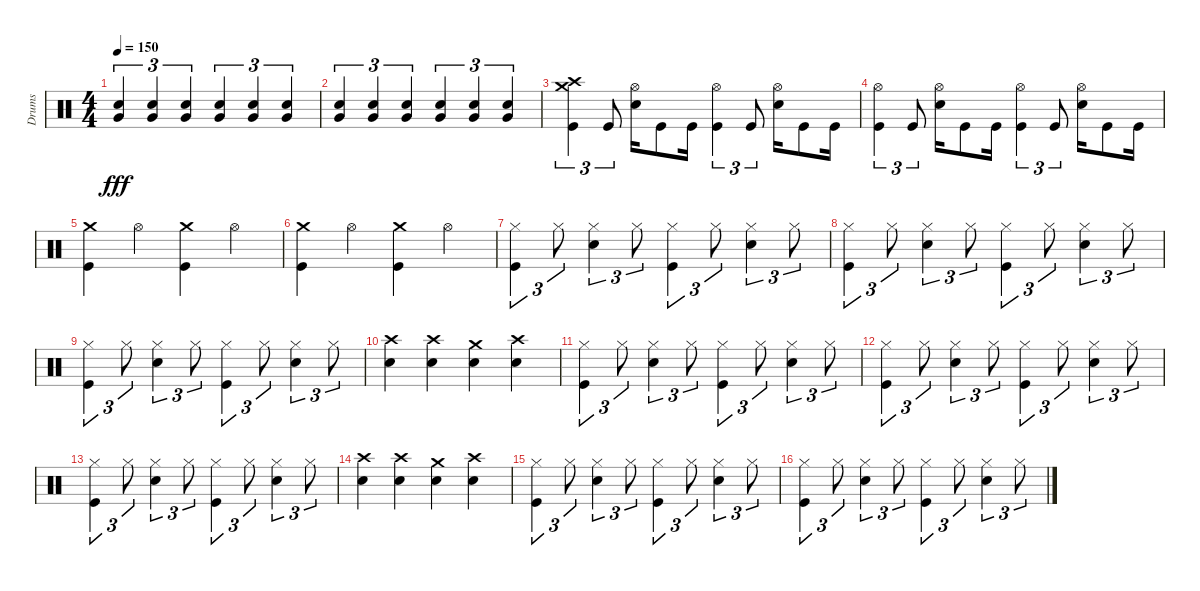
\track ("Drums" "Drums") {instrument percussion}
\staff {score}
\articulation defaults
\ts (4 4)
\tempo 150
\clef neutral
\ks c
("Very Low Tom (hit)" "Snare (hit) 2").4{tu (3 2) dy fff} ("Very Low Tom (hit)" "Snare (hit) 2").4{tu (3 2)} ("Very Low Tom (hit)" "Snare (hit) 2").4{tu (3 2)} ("Very Low Tom (hit)" "Snare (hit) 2").4{tu (3 2)} ("Very Low Tom (hit)" "Snare (hit) 2").4{tu (3 2)} ("Very Low Tom (hit)" "Snare (hit) 2").4{tu (3 2)} |
("Very Low Tom (hit)" "Snare (hit) 2").4{tu (3 2)} ("Very Low Tom (hit)" "Snare (hit) 2").4{tu (3 2)} ("Very Low Tom (hit)" "Snare (hit) 2").4{tu (3 2)} ("Very Low Tom (hit)" "Snare (hit) 2").4{tu (3 2)} ("Very Low Tom (hit)" "Snare (hit) 2").4{tu (3 2)} ("Very Low Tom (hit)" "Snare (hit) 2").4{tu (3 2)} |
("Crash medium (hit)" "Crash high (hit)" "Kick (hit)").4{tu (3 2)} "Kick (hit)".8{tu (3 2)} ("Hi-Hat (open)" "Snare (hit) 2").16 "Kick (hit)".8 "Kick (hit)".16 ("Hi-Hat (open)" "Kick (hit)").4{tu (3 2)} "Kick (hit)".8{tu (3 2)} ("Hi-Hat (open)" "Snare (hit) 2").16 "Kick (hit)".8 "Kick (hit)".16 |
("Hi-Hat (open)" "Kick (hit)").4{tu (3 2)} "Kick (hit)".8{tu (3 2)} ("Hi-Hat (open)" "Snare (hit) 2").16 "Kick (hit)".8 "Kick (hit)".16 ("Hi-Hat (open)" "Kick (hit)").4{tu (3 2)} "Kick (hit)".8{tu (3 2)} ("Hi-Hat (open)" "Snare (hit) 2").16 "Kick (hit)".8 "Kick (hit)".16 |
("Crash medium (hit)" "Kick (hit)").4 "Hi-Hat (open)".4 ("Crash medium (hit)" "Kick (hit)").4 "Hi-Hat (open)".4 |
("Crash medium (hit)" "Kick (hit)").4 "Hi-Hat (open)".4 ("Crash medium (hit)" "Kick (hit)").4 "Hi-Hat (open)".4 |
("Hi-Hat (closed)" "Kick (hit)").4{tu (3 2)} "Hi-Hat (closed)".8{tu (3 2)} ("Hi-Hat (closed)" "Snare (hit) 2").4{tu (3 2)} "Hi-Hat (closed)".8{tu (3 2)} ("Hi-Hat (closed)" "Kick (hit)").4{tu (3 2)} "Hi-Hat (closed)".8{tu (3 2)} ("Hi-Hat (closed)" "Snare (hit) 2").4{tu (3 2)} "Hi-Hat (closed)".8{tu (3 2)} |
("Hi-Hat (closed)" "Kick (hit)").4{tu (3 2)} "Hi-Hat (closed)".8{tu (3 2)} ("Hi-Hat (closed)" "Snare (hit) 2").4{tu (3 2)} "Hi-Hat (closed)".8{tu (3 2)} ("Hi-Hat (closed)" "Kick (hit)").4{tu (3 2)} "Hi-Hat (closed)".8{tu (3 2)} ("Hi-Hat (closed)" "Snare (hit) 2").4{tu (3 2)} "Hi-Hat (closed)".8{tu (3 2)} |
("Hi-Hat (closed)" "Kick (hit)").4{tu (3 2)} "Hi-Hat (closed)".8{tu (3 2)} ("Hi-Hat (closed)" "Snare (hit) 2").4{tu (3 2)} "Hi-Hat (closed)".8{tu (3 2)} ("Hi-Hat (closed)" "Kick (hit)").4{tu (3 2)} "Hi-Hat (closed)".8{tu (3 2)} ("Hi-Hat (closed)" "Snare (hit) 2").4{tu (3 2)} "Hi-Hat (closed)".8{tu (3 2)} |
("Crash high (hit)" "Snare (hit) 2").4 ("Crash high (hit)" "Snare (hit) 2").4 ("Crash medium (hit)" "Snare (hit) 2").4 ("Crash high (hit)" "Snare (hit) 2").4 |
("Hi-Hat (closed)" "Kick (hit)").4{tu (3 2)} "Hi-Hat (closed)".8{tu (3 2)} ("Hi-Hat (closed)" "Snare (hit) 2").4{tu (3 2)} "Hi-Hat (closed)".8{tu (3 2)} ("Hi-Hat (closed)" "Kick (hit)").4{tu (3 2)} "Hi-Hat (closed)".8{tu (3 2)} ("Hi-Hat (closed)" "Snare (hit) 2").4{tu (3 2)} "Hi-Hat (closed)".8{tu (3 2)} |
("Hi-Hat (closed)" "Kick (hit)").4{tu (3 2)} "Hi-Hat (closed)".8{tu (3 2)} ("Hi-Hat (closed)" "Snare (hit) 2").4{tu (3 2)} "Hi-Hat (closed)".8{tu (3 2)} ("Hi-Hat (closed)" "Kick (hit)").4{tu (3 2)} "Hi-Hat (closed)".8{tu (3 2)} ("Hi-Hat (closed)" "Snare (hit) 2").4{tu (3 2)} "Hi-Hat (closed)".8{tu (3 2)} |
("Hi-Hat (closed)" "Kick (hit)").4{tu (3 2)} "Hi-Hat (closed)".8{tu (3 2)} ("Hi-Hat (closed)" "Snare (hit) 2").4{tu (3 2)} "Hi-Hat (closed)".8{tu (3 2)} ("Hi-Hat (closed)" "Kick (hit)").4{tu (3 2)} "Hi-Hat (closed)".8{tu (3 2)} ("Hi-Hat (closed)" "Snare (hit) 2").4{tu (3 2)} "Hi-Hat (closed)".8{tu (3 2)} |
("Crash high (hit)" "Snare (hit) 2").4 ("Crash high (hit)" "Snare (hit) 2").4 ("Crash medium (hit)" "Snare (hit) 2").4 ("Crash high (hit)" "Snare (hit) 2").4 |
("Hi-Hat (closed)" "Kick (hit)").4{tu (3 2)} "Hi-Hat (closed)".8{tu (3 2)} ("Hi-Hat (closed)" "Snare (hit) 2").4{tu (3 2)} "Hi-Hat (closed)".8{tu (3 2)} ("Hi-Hat (closed)" "Kick (hit)").4{tu (3 2)} "Hi-Hat (closed)".8{tu (3 2)} ("Hi-Hat (closed)" "Snare (hit) 2").4{tu (3 2)} "Hi-Hat (closed)".8{tu (3 2)} |
("Hi-Hat (closed)" "Kick (hit)").4{tu (3 2)} "Hi-Hat (closed)".8{tu (3 2)} ("Hi-Hat (closed)" "Snare (hit) 2").4{tu (3 2)} "Hi-Hat (closed)".8{tu (3 2)} ("Hi-Hat (closed)" "Kick (hit)").4{tu (3 2)} "Hi-Hat (closed)".8{tu (3 2)} ("Hi-Hat (closed)" "Snare (hit) 2").4{tu (3 2)} "Hi-Hat (closed)".8{tu (3 2)}
